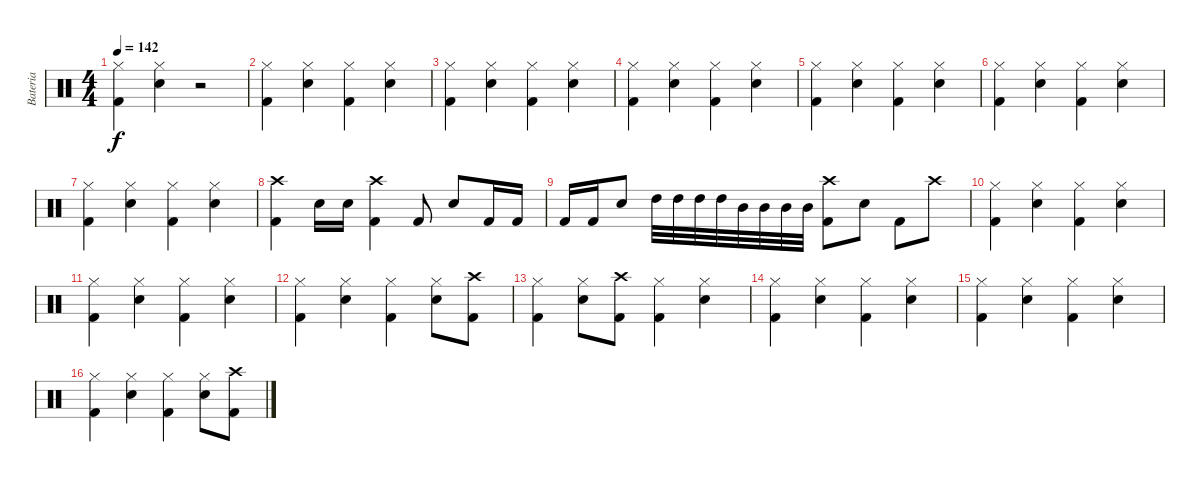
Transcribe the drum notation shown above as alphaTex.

\track ("Bateria" "Bateria") {instrument percussion}
\staff {score}
\articulation defaults
\ts (4 4)
\tempo 142
\clef neutral
\ks c
("Hi-Hat (closed)" "Kick (hit) 2").4{dy f} ("Hi-Hat (closed)" "Electric Snare (hit)").4 r.2 |
("Hi-Hat (closed)" "Kick (hit) 2").4 ("Hi-Hat (closed)" "Electric Snare (hit)").4 ("Hi-Hat (closed)" "Kick (hit) 2").4 ("Hi-Hat (closed)" "Electric Snare (hit)").4 |
("Hi-Hat (closed)" "Kick (hit) 2").4 ("Hi-Hat (closed)" "Electric Snare (hit)").4 ("Hi-Hat (closed)" "Kick (hit) 2").4 ("Hi-Hat (closed)" "Electric Snare (hit)").4 |
("Hi-Hat (closed)" "Kick (hit) 2").4 ("Hi-Hat (closed)" "Electric Snare (hit)").4 ("Hi-Hat (closed)" "Kick (hit) 2").4 ("Hi-Hat (closed)" "Electric Snare (hit)").4 |
("Hi-Hat (closed)" "Kick (hit) 2").4 ("Hi-Hat (closed)" "Electric Snare (hit)").4 ("Hi-Hat (closed)" "Kick (hit) 2").4 ("Hi-Hat (closed)" "Electric Snare (hit)").4 |
("Hi-Hat (closed)" "Kick (hit) 2").4 ("Hi-Hat (closed)" "Electric Snare (hit)").4 ("Hi-Hat (closed)" "Kick (hit) 2").4 ("Hi-Hat (closed)" "Electric Snare (hit)").4 |
("Hi-Hat (closed)" "Kick (hit) 2").4 ("Hi-Hat (closed)" "Electric Snare (hit)").4 ("Hi-Hat (closed)" "Kick (hit) 2").4 ("Hi-Hat (closed)" "Electric Snare (hit)").4 |
("Crash high (hit)" "Kick (hit) 2").4 "Electric Snare (hit)".16 "Electric Snare (hit)".16 ("Crash high (hit)" "Kick (hit) 2").4 "Kick (hit) 2".8 "Electric Snare (hit)".8 "Kick (hit) 2".16 "Kick (hit) 2".16 |
"Kick (hit) 2".16 "Kick (hit) 2".16 "Electric Snare (hit)".8 "High Tom (hit)".32 "High Tom (hit)".32 "High Tom (hit)".32 "High Tom (hit)".32 "Mid Tom (hit)".32 "Mid Tom (hit)".32 "Mid Tom (hit)".32 "Mid Tom (hit)".32 ("Crash high (hit)" "Kick (hit) 2").8 "Electric Snare (hit)".8 "Kick (hit) 2".8 "Crash high (hit)".8 |
("Hi-Hat (closed)" "Kick (hit) 2").4 ("Hi-Hat (closed)" "Electric Snare (hit)").4 ("Hi-Hat (closed)" "Kick (hit) 2").4 ("Hi-Hat (closed)" "Electric Snare (hit)").4 |
("Hi-Hat (closed)" "Kick (hit) 2").4 ("Hi-Hat (closed)" "Electric Snare (hit)").4 ("Hi-Hat (closed)" "Kick (hit) 2").4 ("Hi-Hat (closed)" "Electric Snare (hit)").4 |
("Hi-Hat (closed)" "Kick (hit) 2").4 ("Hi-Hat (closed)" "Electric Snare (hit)").4 ("Hi-Hat (closed)" "Kick (hit) 2").4 ("Hi-Hat (closed)" "Electric Snare (hit)").8 ("Crash high (hit)" "Kick (hit) 2").8 |
("Hi-Hat (closed)" "Kick (hit) 2").4 ("Hi-Hat (closed)" "Electric Snare (hit)").8 ("Crash high (hit)" "Kick (hit) 2").8 ("Hi-Hat (closed)" "Kick (hit) 2").4 ("Hi-Hat (closed)" "Electric Snare (hit)").4 |
("Hi-Hat (closed)" "Kick (hit) 2").4 ("Hi-Hat (closed)" "Electric Snare (hit)").4 ("Hi-Hat (closed)" "Kick (hit) 2").4 ("Hi-Hat (closed)" "Electric Snare (hit)").4 |
("Hi-Hat (closed)" "Kick (hit) 2").4 ("Hi-Hat (closed)" "Electric Snare (hit)").4 ("Hi-Hat (closed)" "Kick (hit) 2").4 ("Hi-Hat (closed)" "Electric Snare (hit)").4 |
("Hi-Hat (closed)" "Kick (hit) 2").4 ("Hi-Hat (closed)" "Electric Snare (hit)").4 ("Hi-Hat (closed)" "Kick (hit) 2").4 ("Hi-Hat (closed)" "Electric Snare (hit)").8 ("Crash high (hit)" "Kick (hit) 2").8
